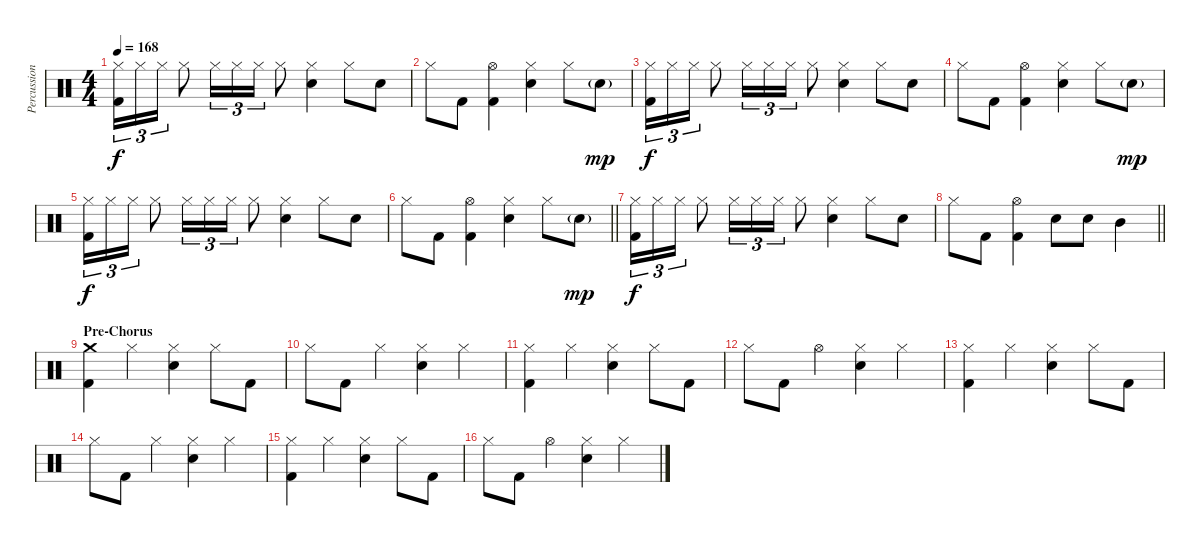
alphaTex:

\track ("Percussion" "Percussion") {instrument percussion}
\staff {score}
\articulation defaults
\ts (4 4)
\tempo 168
\clef neutral
\ks c
("Hi-Hat (closed)" "Kick (hit) 2").16{tu (3 2) dy f} "Hi-Hat (closed)".16{tu (3 2)} "Hi-Hat (closed)".16{tu (3 2)} "Hi-Hat (closed)".8 "Hi-Hat (closed)".16{tu (3 2)} "Hi-Hat (closed)".16{tu (3 2)} "Hi-Hat (closed)".16{tu (3 2)} "Hi-Hat (closed)".8 ("Hi-Hat (closed)" "Electric Snare (hit)").4 "Hi-Hat (closed)".8 "Electric Snare (hit)".8 |
"Hi-Hat (closed)".8 "Kick (hit) 2".8 ("Hi-Hat (open)" "Kick (hit) 2").4 ("Hi-Hat (closed)" "Electric Snare (hit)").4 "Hi-Hat (closed)".8 "Electric Snare (hit)"{g}.8{dy mp} |
("Hi-Hat (closed)" "Kick (hit) 2").16{tu (3 2) dy f} "Hi-Hat (closed)".16{tu (3 2)} "Hi-Hat (closed)".16{tu (3 2)} "Hi-Hat (closed)".8 "Hi-Hat (closed)".16{tu (3 2)} "Hi-Hat (closed)".16{tu (3 2)} "Hi-Hat (closed)".16{tu (3 2)} "Hi-Hat (closed)".8 ("Hi-Hat (closed)" "Electric Snare (hit)").4 "Hi-Hat (closed)".8 "Electric Snare (hit)".8 |
"Hi-Hat (closed)".8 "Kick (hit) 2".8 ("Hi-Hat (open)" "Kick (hit) 2").4 ("Hi-Hat (closed)" "Electric Snare (hit)").4 "Hi-Hat (closed)".8 "Electric Snare (hit)"{g}.8{dy mp} |
("Hi-Hat (closed)" "Kick (hit) 2").16{tu (3 2) dy f} "Hi-Hat (closed)".16{tu (3 2)} "Hi-Hat (closed)".16{tu (3 2)} "Hi-Hat (closed)".8 "Hi-Hat (closed)".16{tu (3 2)} "Hi-Hat (closed)".16{tu (3 2)} "Hi-Hat (closed)".16{tu (3 2)} "Hi-Hat (closed)".8 ("Hi-Hat (closed)" "Electric Snare (hit)").4 "Hi-Hat (closed)".8 "Electric Snare (hit)".8 |
\barLineRight lightlight "Hi-Hat (closed)".8 "Kick (hit) 2".8
("Hi-Hat (open)" "Kick (hit) 2").4 ("Hi-Hat (closed)" "Electric Snare (hit)").4 "Hi-Hat (closed)".8 "Electric Snare (hit)"{g}.8{dy mp} |
("Hi-Hat (closed)" "Kick (hit) 2").16{tu (3 2) dy f} "Hi-Hat (closed)".16{tu (3 2)} "Hi-Hat (closed)".16{tu (3 2)} "Hi-Hat (closed)".8 "Hi-Hat (closed)".16{tu (3 2)} "Hi-Hat (closed)".16{tu (3 2)} "Hi-Hat (closed)".16{tu (3 2)} "Hi-Hat (closed)".8 ("Hi-Hat (closed)" "Electric Snare (hit)").4 "Hi-Hat (closed)".8 "Electric Snare (hit)".8 |
\barLineRight lightlight "Hi-Hat (closed)".8 "Kick (hit) 2".8
("Hi-Hat (open)" "Kick (hit) 2").4 "Electric Snare (hit)".8 "Electric Snare (hit)".8 "Mid Tom (hit)".4 |
\section ("" "Pre-Chorus")
("Crash medium (hit)" "Kick (hit) 2").4 "Hi-Hat (closed)".4 ("Hi-Hat (closed)" "Electric Snare (hit)").4 "Hi-Hat (closed)".8 "Kick (hit) 2".8 |
"Hi-Hat (closed)".8 "Kick (hit) 2".8 "Hi-Hat (closed)".4 ("Hi-Hat (closed)" "Electric Snare (hit)").4 "Hi-Hat (closed)".4 |
("Hi-Hat (closed)" "Kick (hit) 2").4 "Hi-Hat (closed)".4 ("Hi-Hat (closed)" "Electric Snare (hit)").4 "Hi-Hat (closed)".8 "Kick (hit) 2".8 |
"Hi-Hat (closed)".8 "Kick (hit) 2".8 "Hi-Hat (open)".4 ("Hi-Hat (closed)" "Electric Snare (hit)").4 "Hi-Hat (closed)".4 |
("Hi-Hat (closed)" "Kick (hit) 2").4 "Hi-Hat (closed)".4 ("Hi-Hat (closed)" "Electric Snare (hit)").4 "Hi-Hat (closed)".8 "Kick (hit) 2".8 |
"Hi-Hat (closed)".8 "Kick (hit) 2".8 "Hi-Hat (closed)".4 ("Hi-Hat (closed)" "Electric Snare (hit)").4 "Hi-Hat (closed)".4 |
("Hi-Hat (closed)" "Kick (hit) 2").4 "Hi-Hat (closed)".4 ("Hi-Hat (closed)" "Electric Snare (hit)").4 "Hi-Hat (closed)".8 "Kick (hit) 2".8 |
"Hi-Hat (closed)".8 "Kick (hit) 2".8 "Hi-Hat (open)".4 ("Hi-Hat (closed)" "Electric Snare (hit)").4 "Hi-Hat (closed)".4
